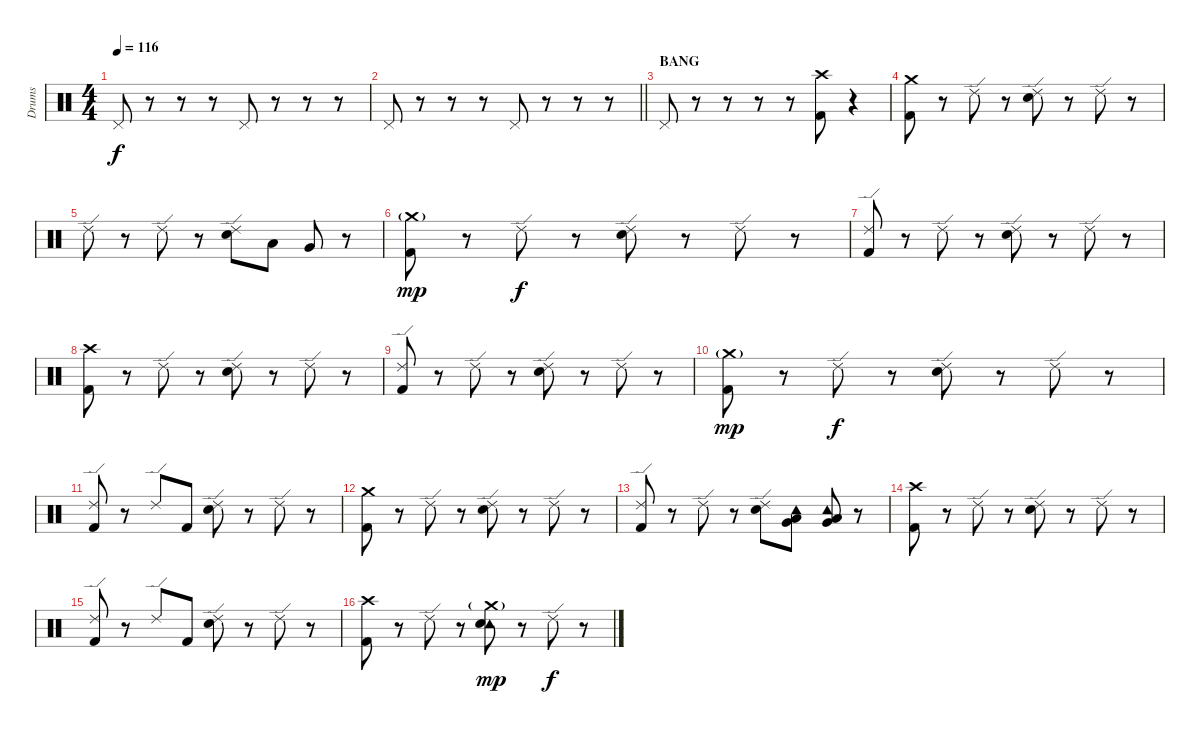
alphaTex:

\track ("Drums" "Drums") {instrument percussion}
\staff {score}
\articulation defaults
\ts (4 4)
\tempo 116
\clef neutral
\ks c "Pedal Hi-Hat (hit)".8{dy f}
r.8 r.8 r.8 "Pedal Hi-Hat (hit)".8 r.8 r.8 r.8 |
\barLineRight lightlight "Pedal Hi-Hat (hit)".8
r.8 r.8 r.8 "Pedal Hi-Hat (hit)".8 r.8 r.8 r.8 |
\section ("" "BANG")
"Pedal Hi-Hat (hit)".8 r.8 r.8 r.8 r.8 ("Crash high (hit)" "Kick (hit) 2").8 r.4 |
("Crash medium (hit)" "Kick (hit) 2").8 r.8 "Ride (edge) 2".8 r.8 ("Ride (edge) 2" "Snare (hit) 2").8 r.8 "Ride (edge) 2".8 r.8 |
"Ride (edge) 2".8 r.8 "Ride (edge) 2".8 r.8 ("Ride (edge) 2" "Snare (hit) 2").8 "Low Tom (hit)".8 "Very Low Tom (hit)".8 r.8 |
("Crash medium (hit)"{g} "Kick (hit) 2").8{dy mp} r.8 "Ride (edge) 2".8{dy f} r.8 ("Ride (edge) 2" "Snare (hit) 2").8 r.8 "Ride (edge) 2".8 r.8 |
("Ride (edge) 2" "Kick (hit) 2").8 r.8 "Ride (edge) 2".8 r.8 ("Ride (edge) 2" "Snare (hit) 2").8 r.8 "Ride (edge) 2".8 r.8 |
("Crash high (hit)" "Kick (hit) 2").8 r.8 "Ride (edge) 2".8 r.8 ("Ride (edge) 2" "Snare (hit) 2").8 r.8 "Ride (edge) 2".8 r.8 |
("Ride (edge) 2" "Kick (hit) 2").8 r.8 "Ride (edge) 2".8 r.8 ("Ride (edge) 2" "Snare (hit) 2").8 r.8 "Ride (edge) 2".8 r.8 |
("Crash medium (hit)"{g} "Kick (hit) 2").8{dy mp} r.8 "Ride (edge) 2".8{dy f} r.8 ("Ride (edge) 2" "Snare (hit) 2").8 r.8 "Ride (edge) 2".8 r.8 |
("Ride (edge) 2" "Kick (hit) 2").8 r.8 "Ride (edge) 2".8 "Kick (hit) 2".8 ("Ride (edge) 2" "Snare (hit) 2").8 r.8 "Ride (edge) 2".8 r.8 |
("Crash medium (hit)" "Kick (hit) 2").8 r.8 "Ride (edge) 2".8 r.8 ("Ride (edge) 2" "Snare (hit) 2").8 r.8 "Ride (edge) 2".8 r.8 |
("Ride (edge) 2" "Kick (hit) 2").8 r.8 "Ride (edge) 2".8 r.8 ("Ride (edge) 2" "Snare (hit) 2").8 ("Tambourine (hit)" "Low Tom (hit)" "Very Low Tom (hit)").8 ("Tambourine (hit)" "Very Low Tom (hit)" "Low Floor Tom (hit)").8 r.8 |
("Crash high (hit)" "Kick (hit) 2").8 r.8 "Ride (edge) 2".8 r.8 ("Ride (edge) 2" "Snare (hit) 2").8 r.8 "Ride (edge) 2".8 r.8 |
("Ride (edge) 2" "Kick (hit) 2").8 r.8 "Ride (edge) 2".8 "Kick (hit) 2".8 ("Ride (edge) 2" "Snare (hit) 2").8 r.8 "Ride (edge) 2".8 r.8 |
("Crash high (hit)" "Kick (hit) 2").8 r.8 "Ride (edge) 2".8 r.8 ("Crash medium (hit)"{g} "Tambourine (hit)" "Snare (hit) 2").8{dy mp} r.8 "Ride (edge) 2".8{dy f} r.8
